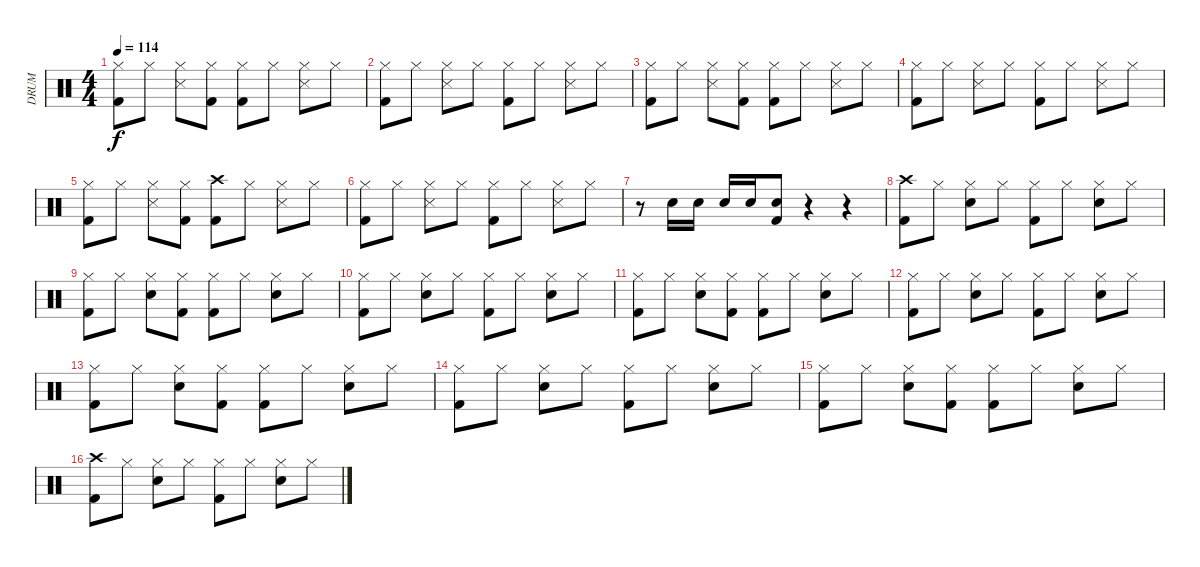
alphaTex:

\track ("DRUM" "DRUM") {instrument percussion}
\staff {score}
\articulation defaults
\ts (4 4)
\tempo 114
\clef neutral
\ks c
("Hi-Hat (closed)" "Kick (hit) 2").8{dy f} "Hi-Hat (closed)".8 ("Hi-Hat (closed)" "Snare (side stick) 3").8 ("Hi-Hat (closed)" "Kick (hit) 2").8 ("Hi-Hat (closed)" "Kick (hit) 2").8 "Hi-Hat (closed)".8 ("Hi-Hat (closed)" "Snare (side stick) 3").8 "Hi-Hat (closed)".8 |
("Hi-Hat (closed)" "Kick (hit) 2").8 "Hi-Hat (closed)".8 ("Hi-Hat (closed)" "Snare (side stick) 3").8 "Hi-Hat (closed)".8 ("Hi-Hat (closed)" "Kick (hit) 2").8 "Hi-Hat (closed)".8 ("Hi-Hat (closed)" "Snare (side stick) 3").8 "Hi-Hat (closed)".8 |
("Hi-Hat (closed)" "Kick (hit) 2").8 "Hi-Hat (closed)".8 ("Hi-Hat (closed)" "Snare (side stick) 3").8 ("Hi-Hat (closed)" "Kick (hit) 2").8 ("Hi-Hat (closed)" "Kick (hit) 2").8 "Hi-Hat (closed)".8 ("Hi-Hat (closed)" "Snare (side stick) 3").8 "Hi-Hat (closed)".8 |
("Hi-Hat (closed)" "Kick (hit) 2").8 "Hi-Hat (closed)".8 ("Hi-Hat (closed)" "Snare (side stick) 3").8 "Hi-Hat (closed)".8 ("Hi-Hat (closed)" "Kick (hit) 2").8 "Hi-Hat (closed)".8 ("Hi-Hat (closed)" "Snare (side stick) 3").8 "Hi-Hat (closed)".8 |
("Hi-Hat (closed)" "Kick (hit) 2").8 "Hi-Hat (closed)".8 ("Hi-Hat (closed)" "Snare (side stick) 3").8 ("Hi-Hat (closed)" "Kick (hit) 2").8 ("Crash high (hit)" "Kick (hit) 2").8 "Hi-Hat (closed)".8 ("Hi-Hat (closed)" "Snare (side stick) 3").8 "Hi-Hat (closed)".8 |
("Hi-Hat (closed)" "Kick (hit) 2").8 "Hi-Hat (closed)".8 ("Hi-Hat (closed)" "Snare (side stick) 3").8 "Hi-Hat (closed)".8 ("Hi-Hat (closed)" "Kick (hit) 2").8 "Hi-Hat (closed)".8 ("Hi-Hat (closed)" "Snare (side stick) 3").8 "Hi-Hat (closed)".8 |
r.8 "Electric Snare (hit)".16 "Electric Snare (hit)".16 "Electric Snare (hit)".16 "Electric Snare (hit)".16 ("Electric Snare (hit)" "Kick (hit) 2").8 r.4 r.4 |
("Crash high (hit)" "Kick (hit) 2").8 "Hi-Hat (closed)".8 ("Hi-Hat (closed)" "Electric Snare (hit)").8 "Hi-Hat (closed)".8 ("Hi-Hat (closed)" "Kick (hit) 2").8 "Hi-Hat (closed)".8 ("Hi-Hat (closed)" "Electric Snare (hit)").8 "Hi-Hat (closed)".8 |
("Hi-Hat (closed)" "Kick (hit) 2").8 "Hi-Hat (closed)".8 ("Hi-Hat (closed)" "Electric Snare (hit)").8 ("Hi-Hat (closed)" "Kick (hit) 2").8 ("Hi-Hat (closed)" "Kick (hit) 2").8 "Hi-Hat (closed)".8 ("Hi-Hat (closed)" "Electric Snare (hit)").8 "Hi-Hat (closed)".8 |
("Hi-Hat (closed)" "Kick (hit) 2").8 "Hi-Hat (closed)".8 ("Hi-Hat (closed)" "Electric Snare (hit)").8 "Hi-Hat (closed)".8 ("Hi-Hat (closed)" "Kick (hit) 2").8 "Hi-Hat (closed)".8 ("Hi-Hat (closed)" "Electric Snare (hit)").8 "Hi-Hat (closed)".8 |
("Hi-Hat (closed)" "Kick (hit) 2").8 "Hi-Hat (closed)".8 ("Hi-Hat (closed)" "Electric Snare (hit)").8 ("Hi-Hat (closed)" "Kick (hit) 2").8 ("Hi-Hat (closed)" "Kick (hit) 2").8 "Hi-Hat (closed)".8 ("Hi-Hat (closed)" "Electric Snare (hit)").8 "Hi-Hat (closed)".8 |
("Hi-Hat (closed)" "Kick (hit) 2").8 "Hi-Hat (closed)".8 ("Hi-Hat (closed)" "Electric Snare (hit)").8 "Hi-Hat (closed)".8 ("Hi-Hat (closed)" "Kick (hit) 2").8 "Hi-Hat (closed)".8 ("Hi-Hat (closed)" "Electric Snare (hit)").8 "Hi-Hat (closed)".8 |
("Hi-Hat (closed)" "Kick (hit) 2").8 "Hi-Hat (closed)".8 ("Hi-Hat (closed)" "Electric Snare (hit)").8 ("Hi-Hat (closed)" "Kick (hit) 2").8 ("Hi-Hat (closed)" "Kick (hit) 2").8 "Hi-Hat (closed)".8 ("Hi-Hat (closed)" "Electric Snare (hit)").8 "Hi-Hat (closed)".8 |
("Hi-Hat (closed)" "Kick (hit) 2").8 "Hi-Hat (closed)".8 ("Hi-Hat (closed)" "Electric Snare (hit)").8 "Hi-Hat (closed)".8 ("Hi-Hat (closed)" "Kick (hit) 2").8 "Hi-Hat (closed)".8 ("Hi-Hat (closed)" "Electric Snare (hit)").8 "Hi-Hat (closed)".8 |
("Hi-Hat (closed)" "Kick (hit) 2").8 "Hi-Hat (closed)".8 ("Hi-Hat (closed)" "Electric Snare (hit)").8 ("Hi-Hat (closed)" "Kick (hit) 2").8 ("Hi-Hat (closed)" "Kick (hit) 2").8 "Hi-Hat (closed)".8 ("Hi-Hat (closed)" "Electric Snare (hit)").8 "Hi-Hat (closed)".8 |
("Crash high (hit)" "Kick (hit) 2").8 "Hi-Hat (closed)".8 ("Hi-Hat (closed)" "Electric Snare (hit)").8 "Hi-Hat (closed)".8 ("Hi-Hat (closed)" "Kick (hit) 2").8 "Hi-Hat (closed)".8 ("Hi-Hat (closed)" "Electric Snare (hit)").8 "Hi-Hat (closed)".8
